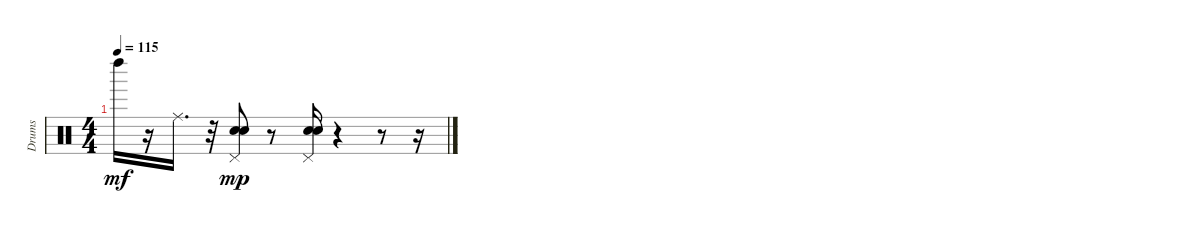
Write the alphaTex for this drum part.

\track ("Drums" "Drums") {instrument percussion}
\staff {score}
\articulation defaults
\ts (4 4)
\tempo 115
\clef neutral
\ks c "Left Maraca (hit)".16{dy mf}
r.16 "Ride (middle)".16{d} r.32 ("Snare (hit) 2" "Snare (hit) 2" "Pedal Hi-Hat (hit)").8{dy mp} r.8 ("Snare (hit) 2" "Snare (hit) 2" "Pedal Hi-Hat (hit)").16 r.4 r.8 r.16
